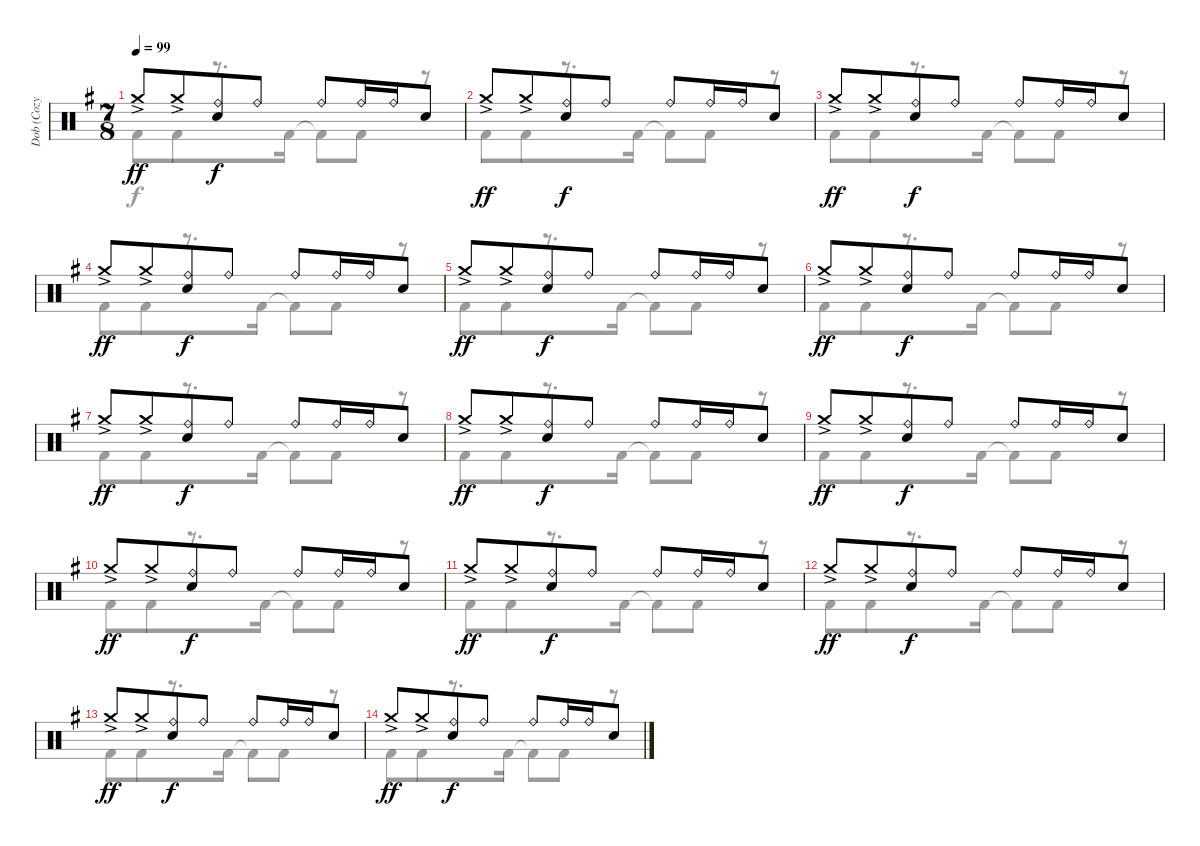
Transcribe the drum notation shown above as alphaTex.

\track ("Dob (Cozy Powell)" "Dob (Cozy ") {instrument percussion}
\staff {score}
\articulation defaults
\voice
\ts (7 8)
\tempo 99
\clef neutral
\ks g "Crash medium (hit)"{ac}.8{dy ff beam merge} "Crash medium (hit)"{ac}.8{beam merge}
("Ride (bell)" "Electric Snare (hit)").8{dy f beam merge} "Ride (bell)".8{beam split} "Ride (bell)".8{beam merge} "Ride (bell)".16 "Ride (bell)".16 "Electric Snare (hit)".8 |
"Crash medium (hit)"{ac}.8{dy ff beam merge} "Crash medium (hit)"{ac}.8{beam merge} ("Ride (bell)" "Electric Snare (hit)").8{dy f beam merge} "Ride (bell)".8{beam split} "Ride (bell)".8{beam merge} "Ride (bell)".16 "Ride (bell)".16 "Electric Snare (hit)".8 |
"Crash medium (hit)"{ac}.8{dy ff beam merge} "Crash medium (hit)"{ac}.8{beam merge} ("Ride (bell)" "Electric Snare (hit)").8{dy f beam merge} "Ride (bell)".8{beam split} "Ride (bell)".8{beam merge} "Ride (bell)".16 "Ride (bell)".16 "Electric Snare (hit)".8 |
"Crash medium (hit)"{ac}.8{dy ff beam merge} "Crash medium (hit)"{ac}.8{beam merge} ("Ride (bell)" "Electric Snare (hit)").8{dy f beam merge} "Ride (bell)".8{beam split} "Ride (bell)".8{beam merge} "Ride (bell)".16 "Ride (bell)".16 "Electric Snare (hit)".8 |
"Crash medium (hit)"{ac}.8{dy ff beam merge} "Crash medium (hit)"{ac}.8{beam merge} ("Ride (bell)" "Electric Snare (hit)").8{dy f beam merge} "Ride (bell)".8{beam split} "Ride (bell)".8{beam merge} "Ride (bell)".16 "Ride (bell)".16 "Electric Snare (hit)".8 |
"Crash medium (hit)"{ac}.8{dy ff beam merge} "Crash medium (hit)"{ac}.8{beam merge} ("Ride (bell)" "Electric Snare (hit)").8{dy f beam merge} "Ride (bell)".8{beam split} "Ride (bell)".8{beam merge} "Ride (bell)".16 "Ride (bell)".16 "Electric Snare (hit)".8 |
"Crash medium (hit)"{ac}.8{dy ff beam merge} "Crash medium (hit)"{ac}.8{beam merge} ("Ride (bell)" "Electric Snare (hit)").8{dy f beam merge} "Ride (bell)".8{beam split} "Ride (bell)".8{beam merge} "Ride (bell)".16 "Ride (bell)".16 "Electric Snare (hit)".8 |
"Crash medium (hit)"{ac}.8{dy ff beam merge} "Crash medium (hit)"{ac}.8{beam merge} ("Ride (bell)" "Electric Snare (hit)").8{dy f beam merge} "Ride (bell)".8{beam split} "Ride (bell)".8{beam merge} "Ride (bell)".16 "Ride (bell)".16 "Electric Snare (hit)".8 |
"Crash medium (hit)"{ac}.8{dy ff beam merge} "Crash medium (hit)"{ac}.8{beam merge} ("Ride (bell)" "Electric Snare (hit)").8{dy f beam merge} "Ride (bell)".8{beam split} "Ride (bell)".8{beam merge} "Ride (bell)".16 "Ride (bell)".16 "Electric Snare (hit)".8 |
"Crash medium (hit)"{ac}.8{dy ff beam merge} "Crash medium (hit)"{ac}.8{beam merge} ("Ride (bell)" "Electric Snare (hit)").8{dy f beam merge} "Ride (bell)".8{beam split} "Ride (bell)".8{beam merge} "Ride (bell)".16 "Ride (bell)".16 "Electric Snare (hit)".8 |
"Crash medium (hit)"{ac}.8{dy ff beam merge} "Crash medium (hit)"{ac}.8{beam merge} ("Ride (bell)" "Electric Snare (hit)").8{dy f beam merge} "Ride (bell)".8{beam split} "Ride (bell)".8{beam merge} "Ride (bell)".16 "Ride (bell)".16 "Electric Snare (hit)".8 |
"Crash medium (hit)"{ac}.8{dy ff beam merge} "Crash medium (hit)"{ac}.8{beam merge} ("Ride (bell)" "Electric Snare (hit)").8{dy f beam merge} "Ride (bell)".8{beam split} "Ride (bell)".8{beam merge} "Ride (bell)".16 "Ride (bell)".16 "Electric Snare (hit)".8 |
"Crash medium (hit)"{ac}.8{dy ff beam merge} "Crash medium (hit)"{ac}.8{beam merge} ("Ride (bell)" "Electric Snare (hit)").8{dy f beam merge} "Ride (bell)".8{beam split} "Ride (bell)".8{beam merge} "Ride (bell)".16 "Ride (bell)".16 "Electric Snare (hit)".8 |
"Crash medium (hit)"{ac}.8{dy ff beam merge} "Crash medium (hit)"{ac}.8{beam merge} ("Ride (bell)" "Electric Snare (hit)").8{dy f beam merge} "Ride (bell)".8{beam split} "Ride (bell)".8{beam merge} "Ride (bell)".16 "Ride (bell)".16 "Electric Snare (hit)".8 |
\voice
\clef neutral
\ottava regular
\simile none
\ks g "Kick (hit) 2".8{dy f beam merge} "Kick (hit) 2".8
r.8{d} "Kick (hit) 2".16 "Kick (hit) 2"{t}.8{beam merge} "Kick (hit) 2".8 r.8 |
"Kick (hit) 2".8{beam merge} "Kick (hit) 2".8 r.8{d} "Kick (hit) 2".16 "Kick (hit) 2"{t}.8{beam merge} "Kick (hit) 2".8 r.8 |
"Kick (hit) 2".8{beam merge} "Kick (hit) 2".8 r.8{d} "Kick (hit) 2".16 "Kick (hit) 2"{t}.8{beam merge} "Kick (hit) 2".8 r.8 |
"Kick (hit) 2".8{beam merge} "Kick (hit) 2".8 r.8{d} "Kick (hit) 2".16 "Kick (hit) 2"{t}.8{beam merge} "Kick (hit) 2".8 r.8 |
"Kick (hit) 2".8{beam merge} "Kick (hit) 2".8 r.8{d} "Kick (hit) 2".16 "Kick (hit) 2"{t}.8{beam merge} "Kick (hit) 2".8 r.8 |
"Kick (hit) 2".8{beam merge} "Kick (hit) 2".8 r.8{d} "Kick (hit) 2".16 "Kick (hit) 2"{t}.8{beam merge} "Kick (hit) 2".8 r.8 |
"Kick (hit) 2".8{beam merge} "Kick (hit) 2".8 r.8{d} "Kick (hit) 2".16 "Kick (hit) 2"{t}.8{beam merge} "Kick (hit) 2".8 r.8 |
"Kick (hit) 2".8{beam merge} "Kick (hit) 2".8 r.8{d} "Kick (hit) 2".16 "Kick (hit) 2"{t}.8{beam merge} "Kick (hit) 2".8 r.8 |
"Kick (hit) 2".8{beam merge} "Kick (hit) 2".8 r.8{d} "Kick (hit) 2".16 "Kick (hit) 2"{t}.8{beam merge} "Kick (hit) 2".8 r.8 |
"Kick (hit) 2".8{beam merge} "Kick (hit) 2".8 r.8{d} "Kick (hit) 2".16 "Kick (hit) 2"{t}.8{beam merge} "Kick (hit) 2".8 r.8 |
"Kick (hit) 2".8{beam merge} "Kick (hit) 2".8 r.8{d} "Kick (hit) 2".16 "Kick (hit) 2"{t}.8{beam merge} "Kick (hit) 2".8 r.8 |
"Kick (hit) 2".8{beam merge} "Kick (hit) 2".8 r.8{d} "Kick (hit) 2".16 "Kick (hit) 2"{t}.8{beam merge} "Kick (hit) 2".8 r.8 |
"Kick (hit) 2".8{beam merge} "Kick (hit) 2".8 r.8{d} "Kick (hit) 2".16 "Kick (hit) 2"{t}.8{beam merge} "Kick (hit) 2".8 r.8 |
"Kick (hit) 2".8{beam merge} "Kick (hit) 2".8 r.8{d} "Kick (hit) 2".16 "Kick (hit) 2"{t}.8{beam merge} "Kick (hit) 2".8 r.8 |
